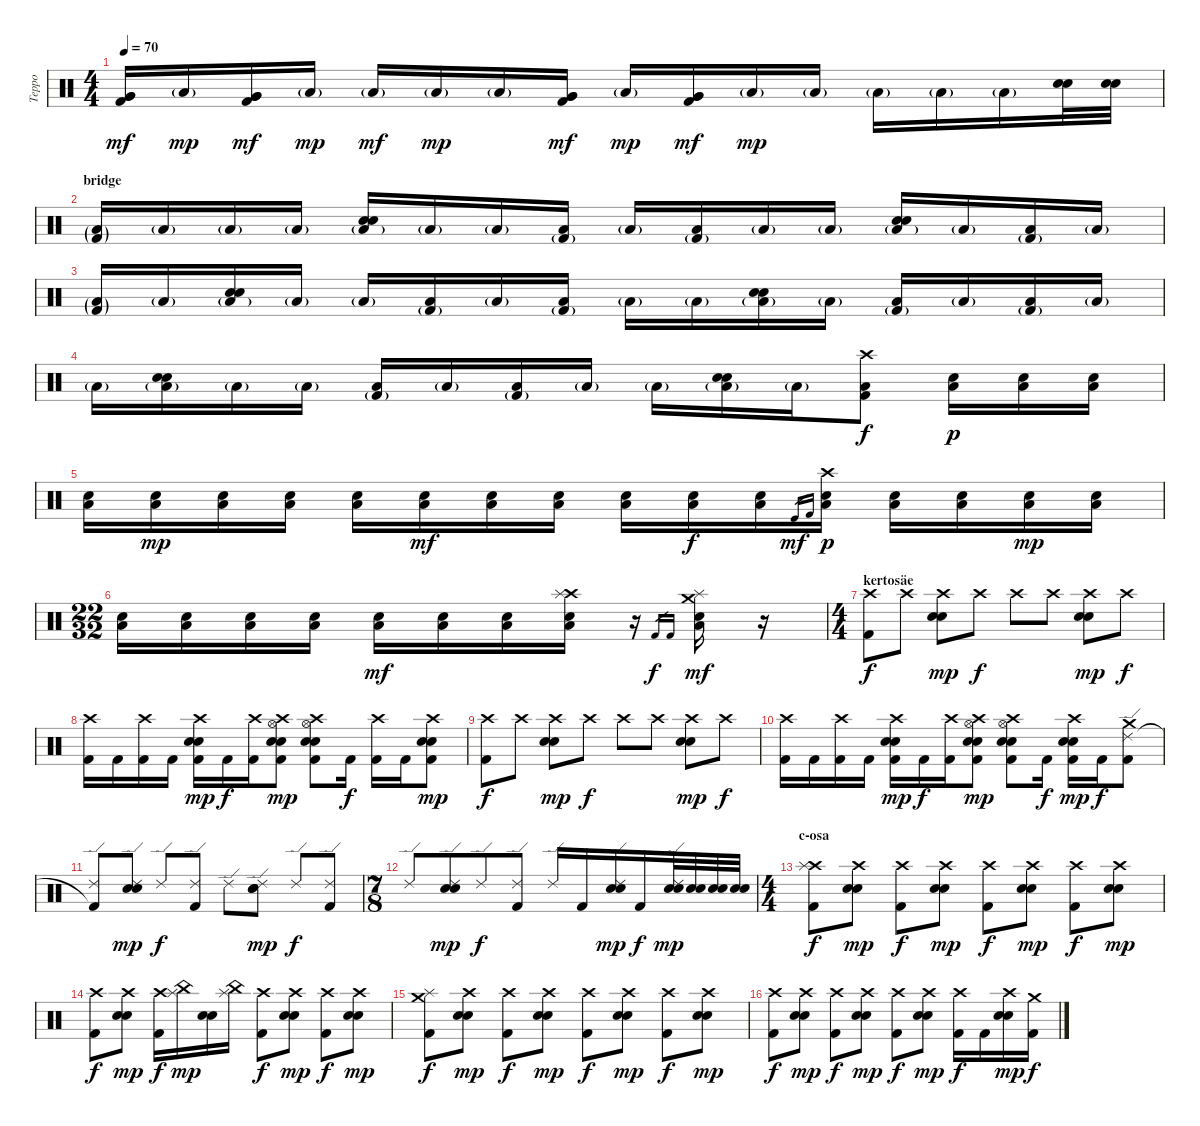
\track ("Teppo" "Teppo") {instrument percussion}
\staff {score}
\articulation defaults
\ts (4 4)
\tempo 70
\clef neutral
\ks c
("Very Low Tom (hit)" "Very Low Tom (hit)" "Kick (hit) 2").16{dy mf} "Low Floor Tom (hit)"{g}.16{dy mp} ("Very Low Tom (hit)" "Very Low Tom (hit)" "Kick (hit) 2").16{dy mf} "Low Floor Tom (hit)"{g}.16{dy mp} "Low Floor Tom (hit)"{g}.16{dy mf} "Low Floor Tom (hit)"{g}.16{dy mp} "Low Floor Tom (hit)"{g}.16 ("Very Low Tom (hit)" "Very Low Tom (hit)" "Kick (hit) 2").16{dy mf} "Low Floor Tom (hit)"{g}.16{dy mp} ("Very Low Tom (hit)" "Very Low Tom (hit)" "Kick (hit) 2").16{dy mf} "Low Floor Tom (hit)"{g}.16{dy mp} "Low Floor Tom (hit)"{g}.16 "Low Floor Tom (hit)"{g}.16 "Low Floor Tom (hit)"{g}.16 "Low Floor Tom (hit)"{g}.16 ("Snare (hit) 2" "Electric Snare (hit)").32 ("Snare (hit) 2" "Electric Snare (hit)").32 |
\section ("" "bridge")
("Low Floor Tom (hit)"{g} "Kick (hit) 2"{g}).16 "Low Floor Tom (hit)"{g}.16 "Low Floor Tom (hit)"{g}.16 "Low Floor Tom (hit)"{g}.16 ("Low Floor Tom (hit)"{g} "Snare (hit) 2" "Electric Snare (hit)").16 "Low Floor Tom (hit)"{g}.16 "Low Floor Tom (hit)"{g}.16 ("Low Floor Tom (hit)" "Kick (hit) 2"{g}).16 "Low Floor Tom (hit)"{g}.16 ("Low Floor Tom (hit)" "Kick (hit) 2"{g}).16 "Low Floor Tom (hit)"{g}.16 "Low Floor Tom (hit)"{g}.16 ("Low Floor Tom (hit)"{g} "Snare (hit) 2" "Electric Snare (hit)").16 "Low Floor Tom (hit)"{g}.16 ("Low Floor Tom (hit)" "Kick (hit) 2"{g}).16 "Low Floor Tom (hit)"{g}.16 |
("Low Floor Tom (hit)"{g} "Kick (hit) 2"{g}).16 "Low Floor Tom (hit)"{g}.16 ("Low Floor Tom (hit)"{g} "Snare (hit) 2" "Electric Snare (hit)").16 "Low Floor Tom (hit)"{g}.16 "Low Floor Tom (hit)"{g}.16 ("Low Floor Tom (hit)" "Kick (hit) 2"{g}).16 "Low Floor Tom (hit)"{g}.16 ("Low Floor Tom (hit)" "Kick (hit) 2"{g}).16 "Low Floor Tom (hit)"{g}.16 "Low Floor Tom (hit)"{g}.16 ("Low Floor Tom (hit)"{g} "Snare (hit) 2" "Electric Snare (hit)").16 "Low Floor Tom (hit)"{g}.16 ("Low Floor Tom (hit)" "Kick (hit) 2"{g}).16 "Low Floor Tom (hit)"{g}.16 ("Low Floor Tom (hit)" "Kick (hit) 2"{g}).16 "Low Floor Tom (hit)"{g}.16 |
"Low Floor Tom (hit)"{g}.16 ("Low Floor Tom (hit)"{g} "Snare (hit) 2" "Electric Snare (hit)").16 "Low Floor Tom (hit)"{g}.16 "Low Floor Tom (hit)"{g}.16 ("Low Floor Tom (hit)" "Kick (hit) 2"{g}).16 "Low Floor Tom (hit)"{g}.16 ("Low Floor Tom (hit)" "Kick (hit) 2"{g}).16 "Low Floor Tom (hit)"{g}.16 "Low Floor Tom (hit)"{g}.16 ("Low Floor Tom (hit)"{g} "Snare (hit) 2" "Electric Snare (hit)").16 "Low Floor Tom (hit)"{g}.16 ("Crash high (hit)" "Low Floor Tom (hit)" "Kick (hit) 2").8{dy f} ("Low Floor Tom (hit)" "Electric Snare (hit)").16{dy p} ("Low Floor Tom (hit)" "Electric Snare (hit)").16 ("Low Floor Tom (hit)" "Electric Snare (hit)").16 |
("Low Floor Tom (hit)" "Electric Snare (hit)").16 ("Low Floor Tom (hit)" "Electric Snare (hit)").16{dy mp} ("Low Floor Tom (hit)" "Electric Snare (hit)").16 ("Low Floor Tom (hit)" "Electric Snare (hit)").16 ("Low Floor Tom (hit)" "Electric Snare (hit)").16 ("Low Floor Tom (hit)" "Electric Snare (hit)").16{dy mf} ("Low Floor Tom (hit)" "Electric Snare (hit)").16 ("Low Floor Tom (hit)" "Electric Snare (hit)").16 ("Low Floor Tom (hit)" "Electric Snare (hit)").16 ("Low Floor Tom (hit)" "Electric Snare (hit)").16{dy f} ("Low Floor Tom (hit)" "Electric Snare (hit)").16 "Kick (hit)".16{gr dy mf} "Kick (hit) 2".16{gr} ("Crash high (hit)" "Low Floor Tom (hit)" "Electric Snare (hit)").16{dy p} ("Low Floor Tom (hit)" "Electric Snare (hit)").16 ("Low Floor Tom (hit)" "Electric Snare (hit)").16 ("Low Floor Tom (hit)" "Electric Snare (hit)").16{dy mp} ("Low Floor Tom (hit)" "Electric Snare (hit)").16 |
\ts (22 32)
("Low Floor Tom (hit)" "Electric Snare (hit)").16 ("Low Floor Tom (hit)" "Electric Snare (hit)").16 ("Low Floor Tom (hit)" "Electric Snare (hit)").16 ("Low Floor Tom (hit)" "Electric Snare (hit)").16 ("Low Floor Tom (hit)" "Electric Snare (hit)").16{dy mf} ("Low Floor Tom (hit)" "Electric Snare (hit)").16 ("Low Floor Tom (hit)" "Electric Snare (hit)").16 ("Crash high (hit)" "Splash (hit)" "Low Floor Tom (hit)" "Electric Snare (hit)").16 r.16 "Kick (hit) 2".16{gr dy f} "Kick (hit) 2".16{gr} ("Crash medium (hit)" "Splash (hit)" "Low Floor Tom (hit)" "Electric Snare (hit)").16{dy mf} r.16 |
\ts (4 4)
\section ("" "kertosäe")
("Crash high (hit)" "Kick (hit) 2").8{dy f} "Crash high (hit)".8 ("Crash high (hit)" "Snare (hit) 2" "Electric Snare (hit)").8{dy mp} "Crash high (hit)".8{dy f} "Crash high (hit)".8 "Crash high (hit)".8 ("Crash high (hit)" "Snare (hit) 2" "Electric Snare (hit)").8{dy mp} "Crash high (hit)".8{dy f} |
("Crash high (hit)" "Kick (hit) 2").16 "Kick (hit) 2".16 ("Crash high (hit)" "Kick (hit) 2").16 "Kick (hit) 2".16 ("Crash high (hit)" "Snare (hit) 2" "Electric Snare (hit)" "Kick (hit) 2").16{dy mp} "Kick (hit) 2".16{dy f} ("Crash high (hit)" "Kick (hit) 2").16 ("Hi-Hat (open)" "Crash high (hit)" "Snare (hit) 2" "Electric Snare (hit)" "Kick (hit) 2").8{dy mp} ("Hi-Hat (open)" "Crash high (hit)" "Snare (hit) 2" "Electric Snare (hit)" "Kick (hit) 2").8 "Kick (hit) 2".16{dy f} ("Crash high (hit)" "Kick (hit) 2").16 "Kick (hit) 2".16 ("Crash high (hit)" "Snare (hit) 2" "Electric Snare (hit)" "Kick (hit) 2").8{dy mp} |
("Crash high (hit)" "Kick (hit) 2").8{dy f} "Crash high (hit)".8 ("Crash high (hit)" "Snare (hit) 2" "Electric Snare (hit)").8{dy mp} "Crash high (hit)".8{dy f} "Crash high (hit)".8 "Crash high (hit)".8 ("Crash high (hit)" "Snare (hit) 2" "Electric Snare (hit)").8{dy mp} "Crash high (hit)".8{dy f} |
("Crash high (hit)" "Kick (hit) 2").16 "Kick (hit) 2".16 ("Crash high (hit)" "Kick (hit) 2").16 "Kick (hit) 2".16 ("Crash high (hit)" "Snare (hit) 2" "Electric Snare (hit)" "Kick (hit) 2").16{dy mp} "Kick (hit) 2".16{dy f} ("Crash high (hit)" "Kick (hit) 2").16 ("Hi-Hat (open)" "Crash high (hit)" "Snare (hit) 2" "Electric Snare (hit)" "Kick (hit) 2").8{dy mp} ("Hi-Hat (open)" "Crash high (hit)" "Snare (hit) 2" "Electric Snare (hit)" "Kick (hit) 2").8 "Kick (hit) 2".16{dy f} ("Crash high (hit)" "Snare (hit) 2" "Electric Snare (hit)" "Kick (hit) 2").16{dy mp} "Kick (hit) 2".16{dy f} ("Crash medium (hit)" "Ride (edge) 2" "Kick (hit) 2").8 |
("Ride (edge) 2" "Kick (hit) 2"{t}).8 ("Ride (edge) 2" "Snare (hit) 2" "Electric Snare (hit)").8{dy mp} "Ride (edge) 2".8{dy f} ("Ride (edge) 2" "Kick (hit) 2").8 "Ride (edge) 2".8 ("Ride (edge) 2" "Snare (hit) 2" "Electric Snare (hit)").8{dy mp} "Ride (edge) 2".8{dy f} ("Ride (edge) 2" "Kick (hit) 2").8 |
\ts (7 8)
"Ride (edge) 2".8 ("Ride (edge) 2" "Snare (hit) 2" "Electric Snare (hit)").8{dy mp} "Ride (edge) 2".8{dy f} ("Ride (edge) 2" "Kick (hit) 2").8 "Ride (edge) 2".16 "Kick (hit) 2".16 ("Ride (edge) 2" "Snare (hit) 2" "Electric Snare (hit)").16{dy mp} "Kick (hit) 2".16{dy f} ("Ride (edge) 2" "Snare (hit) 2" "Electric Snare (hit)").32{dy mp} ("Snare (hit) 2" "Electric Snare (hit)").32 ("Snare (hit) 2" "Electric Snare (hit)").32 ("Snare (hit) 2" "Electric Snare (hit)").32 |
\ts (4 4)
\section ("" "c-osa")
("Crash high (hit)" "Splash (hit)" "Kick (hit) 2").8{dy f} ("Crash high (hit)" "Snare (hit) 2" "Electric Snare (hit)").8{dy mp} ("Crash high (hit)" "Kick (hit) 2").8{dy f} ("Crash high (hit)" "Snare (hit) 2" "Electric Snare (hit)").8{dy mp} ("Crash high (hit)" "Kick (hit) 2").8{dy f} ("Crash high (hit)" "Snare (hit) 2" "Electric Snare (hit)").8{dy mp} ("Crash high (hit)" "Kick (hit) 2").8{dy f} ("Crash high (hit)" "Snare (hit) 2" "Electric Snare (hit)").8{dy mp} |
("Crash high (hit)" "Kick (hit) 2").8{dy f} ("Crash high (hit)" "Snare (hit) 2" "Electric Snare (hit)").8{dy mp} ("Crash high (hit)" "Kick (hit) 2").16{dy f} ("Splash (hit)" "China (hit)").16{dy mp} ("Snare (hit) 2" "Electric Snare (hit)").16 ("Splash (hit)" "China (hit)").16 ("Crash high (hit)" "Kick (hit) 2").8{dy f} ("Crash high (hit)" "Snare (hit) 2" "Electric Snare (hit)").8{dy mp} ("Crash high (hit)" "Kick (hit) 2").8{dy f} ("Crash high (hit)" "Snare (hit) 2" "Electric Snare (hit)").8{dy mp} |
("Crash medium (hit)" "Splash (hit)" "Kick (hit) 2").8{dy f} ("Crash high (hit)" "Snare (hit) 2" "Electric Snare (hit)").8{dy mp} ("Crash high (hit)" "Kick (hit) 2").8{dy f} ("Crash high (hit)" "Snare (hit) 2" "Electric Snare (hit)").8{dy mp} ("Crash high (hit)" "Kick (hit) 2").8{dy f} ("Crash high (hit)" "Snare (hit) 2" "Electric Snare (hit)").8{dy mp} ("Crash high (hit)" "Kick (hit) 2").8{dy f} ("Crash high (hit)" "Snare (hit) 2" "Electric Snare (hit)").8{dy mp} |
("Crash high (hit)" "Kick (hit) 2").8{dy f} ("Crash high (hit)" "Snare (hit) 2" "Electric Snare (hit)").8{dy mp} ("Crash high (hit)" "Kick (hit) 2").8{dy f} ("Crash high (hit)" "Snare (hit) 2" "Electric Snare (hit)").8{dy mp} ("Crash high (hit)" "Kick (hit) 2").8{dy f} ("Crash high (hit)" "Snare (hit) 2" "Electric Snare (hit)").8{dy mp} ("Crash high (hit)" "Kick (hit) 2").16{dy f} "Kick (hit) 2".16 ("Crash high (hit)" "Snare (hit) 2" "Electric Snare (hit)").16{dy mp} ("Crash medium (hit)" "Kick (hit) 2").16{dy f}
